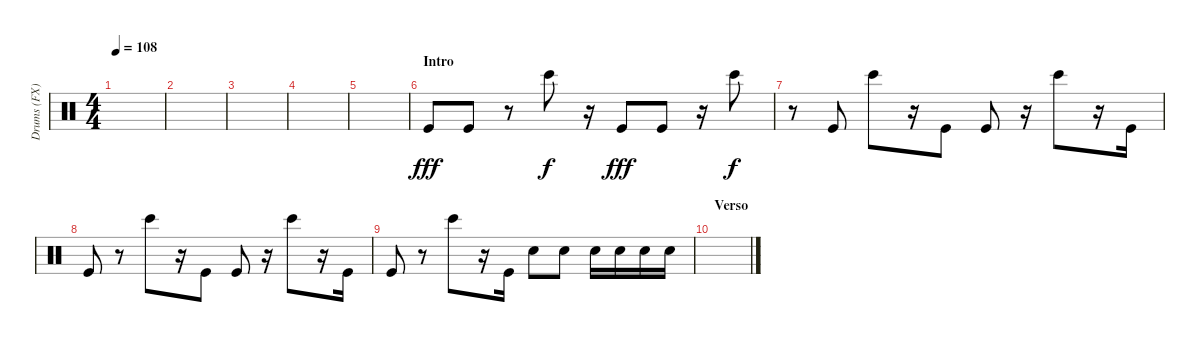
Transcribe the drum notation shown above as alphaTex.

\track ("Drums (FX)" "Drums (FX)") {instrument percussion}
\staff {score}
\articulation defaults
\ts (4 4)
\tempo 108
\clef neutral
\ks c
|
|
|
|
|
\section ("" "Intro")
"Kick (hit)".8{dy fff} "Kick (hit)".8 r.8 "Bongo High (hit)".8{dy f} r.16 "Kick (hit)".8{dy fff} "Kick (hit)".8 r.16 "Bongo High (hit)".8{dy f} |
r.8 "Kick (hit)".8 "Bongo High (hit)".8 r.16 "Kick (hit)".8 "Kick (hit)".8 r.16 "Bongo High (hit)".8 r.16 "Kick (hit)".16 |
"Kick (hit)".8 r.8 "Bongo High (hit)".8 r.16 "Kick (hit)".8 "Kick (hit)".8 r.16 "Bongo High (hit)".8 r.16 "Kick (hit)".16 |
"Kick (hit)".8 r.8 "Bongo High (hit)".8 r.16 "Kick (hit)".16 "Snare (hit) 2".8 "Snare (hit) 2".8 "Snare (hit) 2".16 "Snare (hit) 2".16 "Snare (hit) 2".16 "Snare (hit) 2".16 |
\section ("" "Verso")
